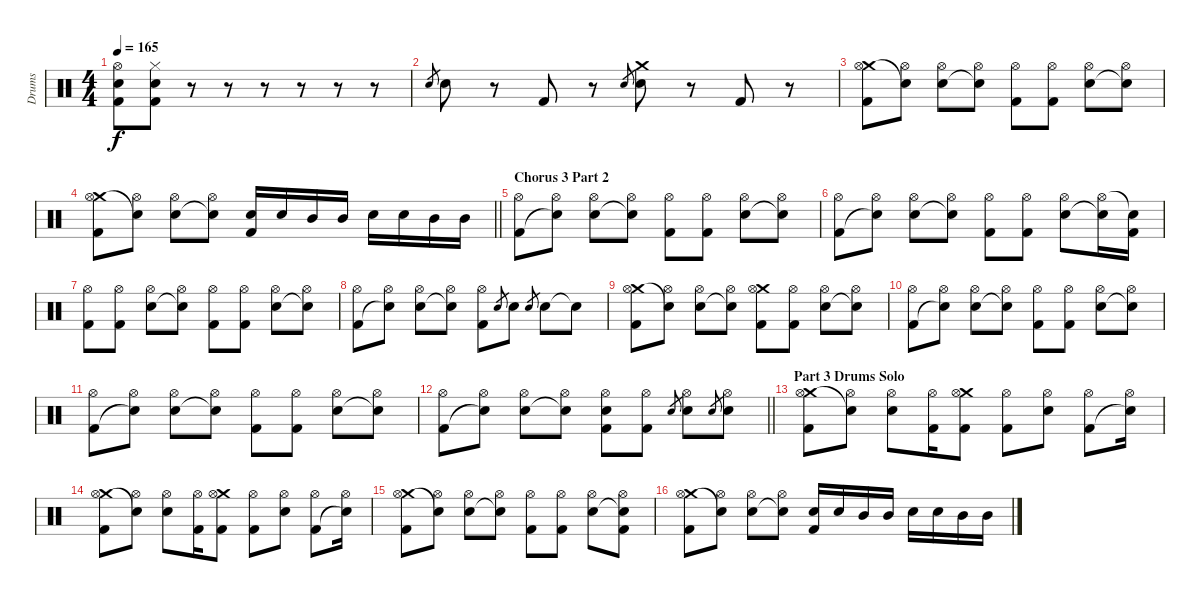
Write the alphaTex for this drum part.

\track ("Drums" "Drums") {instrument percussion}
\staff {score}
\articulation defaults
\ts (4 4)
\tempo 165
\clef neutral
\ks c
("Hi-Hat (open)" "Electric Snare (hit)" "Kick (hit) 2").8{dy f} ("Hi-Hat (closed)" "Electric Snare (hit)" "Kick (hit) 2").8 r.8 r.8 r.8 r.8 r.8 r.8 |
"Electric Snare (hit)".8{gr} "Electric Snare (hit)".8 r.8 "Kick (hit) 2".8 r.8 "Electric Snare (hit)".8{gr} ("Crash medium (hit)" "Electric Snare (hit)").8 r.8 "Kick (hit) 2".8 r.8 |
("Crash medium (hit)" "Hi-Hat (open)" "Kick (hit) 2").8 ("Hi-Hat (open)" "Snare (hit)"{t}).8 ("Hi-Hat (open)" "Electric Snare (hit)").8 ("Hi-Hat (open)" "Snare (hit)"{t}).8 ("Hi-Hat (open)" "Kick (hit) 2").8 ("Hi-Hat (open)" "Kick (hit) 2").8 ("Hi-Hat (open)" "Electric Snare (hit)").8 ("Hi-Hat (open)" "Snare (hit)"{t}).8 |
\barLineRight lightlight
("Crash medium (hit)" "Hi-Hat (open)" "Kick (hit) 2").8 ("Hi-Hat (open)" "Snare (hit)"{t}).8 ("Hi-Hat (open)" "Electric Snare (hit)").8 ("Hi-Hat (open)" "Snare (hit)"{t}).8 ("Electric Snare (hit)" "Kick (hit) 2").16 "Electric Snare (hit)".16 "Mid Tom (hit)".16 "Mid Tom (hit)".16 "Electric Snare (hit)".16 "Electric Snare (hit)".16 "Mid Tom (hit)".16 "Mid Tom (hit)".16 |
\section ("" "Chorus 3 Part 2")
("Hi-Hat (open)" "Kick (hit) 2").8 ("Hi-Hat (open)" "Snare (hit)"{t}).8 ("Hi-Hat (open)" "Electric Snare (hit)").8 ("Hi-Hat (open)" "Snare (hit)"{t}).8 ("Hi-Hat (open)" "Kick (hit) 2").8 ("Hi-Hat (open)" "Kick (hit) 2").8 ("Hi-Hat (open)" "Electric Snare (hit)").8 ("Hi-Hat (open)" "Snare (hit)"{t}).8 |
("Hi-Hat (open)" "Kick (hit) 2").8 ("Hi-Hat (open)" "Snare (hit)"{t}).8 ("Hi-Hat (open)" "Electric Snare (hit)").8 ("Hi-Hat (open)" "Snare (hit)"{t}).8 ("Hi-Hat (open)" "Kick (hit) 2").8 ("Hi-Hat (open)" "Kick (hit) 2").8 ("Hi-Hat (open)" "Electric Snare (hit)").8 ("Hi-Hat (open)" "Snare (hit)"{t}).16 ("Snare (hit)"{t} "Kick (hit) 2").16 |
("Hi-Hat (open)" "Kick (hit) 2").8 ("Hi-Hat (open)" "Kick (hit) 2").8 ("Hi-Hat (open)" "Electric Snare (hit)").8 ("Hi-Hat (open)" "Snare (hit)"{t}).8 ("Hi-Hat (open)" "Kick (hit) 2").8 ("Hi-Hat (open)" "Kick (hit) 2").8 ("Hi-Hat (open)" "Electric Snare (hit)").8 ("Hi-Hat (open)" "Snare (hit)"{t}).8 |
("Hi-Hat (open)" "Kick (hit) 2").8 ("Hi-Hat (open)" "Snare (hit)"{t}).8 ("Hi-Hat (open)" "Electric Snare (hit)").8 ("Hi-Hat (open)" "Snare (hit)"{t}).8 ("Hi-Hat (open)" "Kick (hit) 2").8 "Electric Snare (hit)".8{gr} "Electric Snare (hit)".8 "Electric Snare (hit)".8{gr} "Electric Snare (hit)".8 "Snare (hit)"{t}.8 |
("Crash medium (hit)" "Hi-Hat (open)" "Kick (hit) 2").8 ("Hi-Hat (open)" "Snare (hit)"{t}).8 ("Hi-Hat (open)" "Electric Snare (hit)").8 ("Hi-Hat (open)" "Snare (hit)"{t}).8 ("Crash medium (hit)" "Hi-Hat (open)" "Kick (hit) 2").8 ("Hi-Hat (open)" "Kick (hit) 2").8 ("Hi-Hat (open)" "Electric Snare (hit)").8 ("Hi-Hat (open)" "Snare (hit)"{t}).8 |
("Hi-Hat (open)" "Kick (hit) 2").8 ("Hi-Hat (open)" "Snare (hit)"{t}).8 ("Hi-Hat (open)" "Electric Snare (hit)").8 ("Hi-Hat (open)" "Snare (hit)"{t}).8 ("Hi-Hat (open)" "Kick (hit) 2").8 ("Hi-Hat (open)" "Kick (hit) 2").8 ("Hi-Hat (open)" "Electric Snare (hit)").8 ("Hi-Hat (open)" "Snare (hit)"{t}).8 |
("Hi-Hat (open)" "Kick (hit) 2").8 ("Hi-Hat (open)" "Snare (hit)"{t}).8 ("Hi-Hat (open)" "Electric Snare (hit)").8 ("Hi-Hat (open)" "Snare (hit)"{t}).8 ("Hi-Hat (open)" "Kick (hit) 2").8 ("Hi-Hat (open)" "Kick (hit) 2").8 ("Hi-Hat (open)" "Electric Snare (hit)").8 ("Hi-Hat (open)" "Snare (hit)"{t}).8 |
\barLineRight lightlight
("Hi-Hat (open)" "Kick (hit) 2").8 ("Hi-Hat (open)" "Snare (hit)"{t}).8 ("Hi-Hat (open)" "Electric Snare (hit)").8 ("Hi-Hat (open)" "Snare (hit)"{t}).8 ("Hi-Hat (open)" "Electric Snare (hit)" "Kick (hit) 2").8 ("Hi-Hat (open)" "Kick (hit) 2").8 "Electric Snare (hit)".8{gr} ("Hi-Hat (open)" "Electric Snare (hit)").8 "Electric Snare (hit)".8{gr} ("Hi-Hat (open)" "Electric Snare (hit)").8 |
\section ("" "Part 3 Drums Solo")
("Crash medium (hit)" "Hi-Hat (open)" "Kick (hit) 2").8 ("Hi-Hat (open)" "Snare (hit)"{t}).8 ("Hi-Hat (open)" "Electric Snare (hit)").8 ("Hi-Hat (open)" "Kick (hit) 2").16 ("Crash medium (hit)" "Hi-Hat (open)" "Kick (hit) 2").8 ("Hi-Hat (open)" "Kick (hit) 2").8 ("Hi-Hat (open)" "Electric Snare (hit)").8 ("Hi-Hat (open)" "Kick (hit) 2").8 ("Hi-Hat (open)" "Snare (hit)"{t}).16 |
("Crash medium (hit)" "Hi-Hat (open)" "Kick (hit) 2").8 ("Hi-Hat (open)" "Snare (hit)"{t}).8 ("Hi-Hat (open)" "Electric Snare (hit)").8 ("Hi-Hat (open)" "Kick (hit) 2").16 ("Crash medium (hit)" "Hi-Hat (open)" "Kick (hit) 2").8 ("Hi-Hat (open)" "Kick (hit) 2").8 ("Hi-Hat (open)" "Electric Snare (hit)").8 ("Hi-Hat (open)" "Kick (hit) 2").8 ("Hi-Hat (open)" "Snare (hit)"{t}).16 |
("Crash medium (hit)" "Hi-Hat (open)" "Kick (hit) 2").8 ("Hi-Hat (open)" "Snare (hit)"{t}).8 ("Hi-Hat (open)" "Electric Snare (hit)").8 ("Hi-Hat (open)" "Snare (hit)"{t}).8 ("Hi-Hat (open)" "Kick (hit) 2").8 ("Hi-Hat (open)" "Kick (hit) 2").8 ("Hi-Hat (open)" "Electric Snare (hit)").8 ("Hi-Hat (open)" "Snare (hit)"{t} "Kick (hit) 2").8 |
("Crash medium (hit)" "Hi-Hat (open)" "Kick (hit) 2").8 ("Hi-Hat (open)" "Snare (hit)"{t}).8 ("Hi-Hat (open)" "Electric Snare (hit)").8 ("Hi-Hat (open)" "Snare (hit)"{t}).8 ("Electric Snare (hit)" "Kick (hit) 2").16 "Electric Snare (hit)".16 "Mid Tom (hit)".16 "Mid Tom (hit)".16 "Electric Snare (hit)".16 "Electric Snare (hit)".16 "Mid Tom (hit)".16 "Mid Tom (hit)".16
